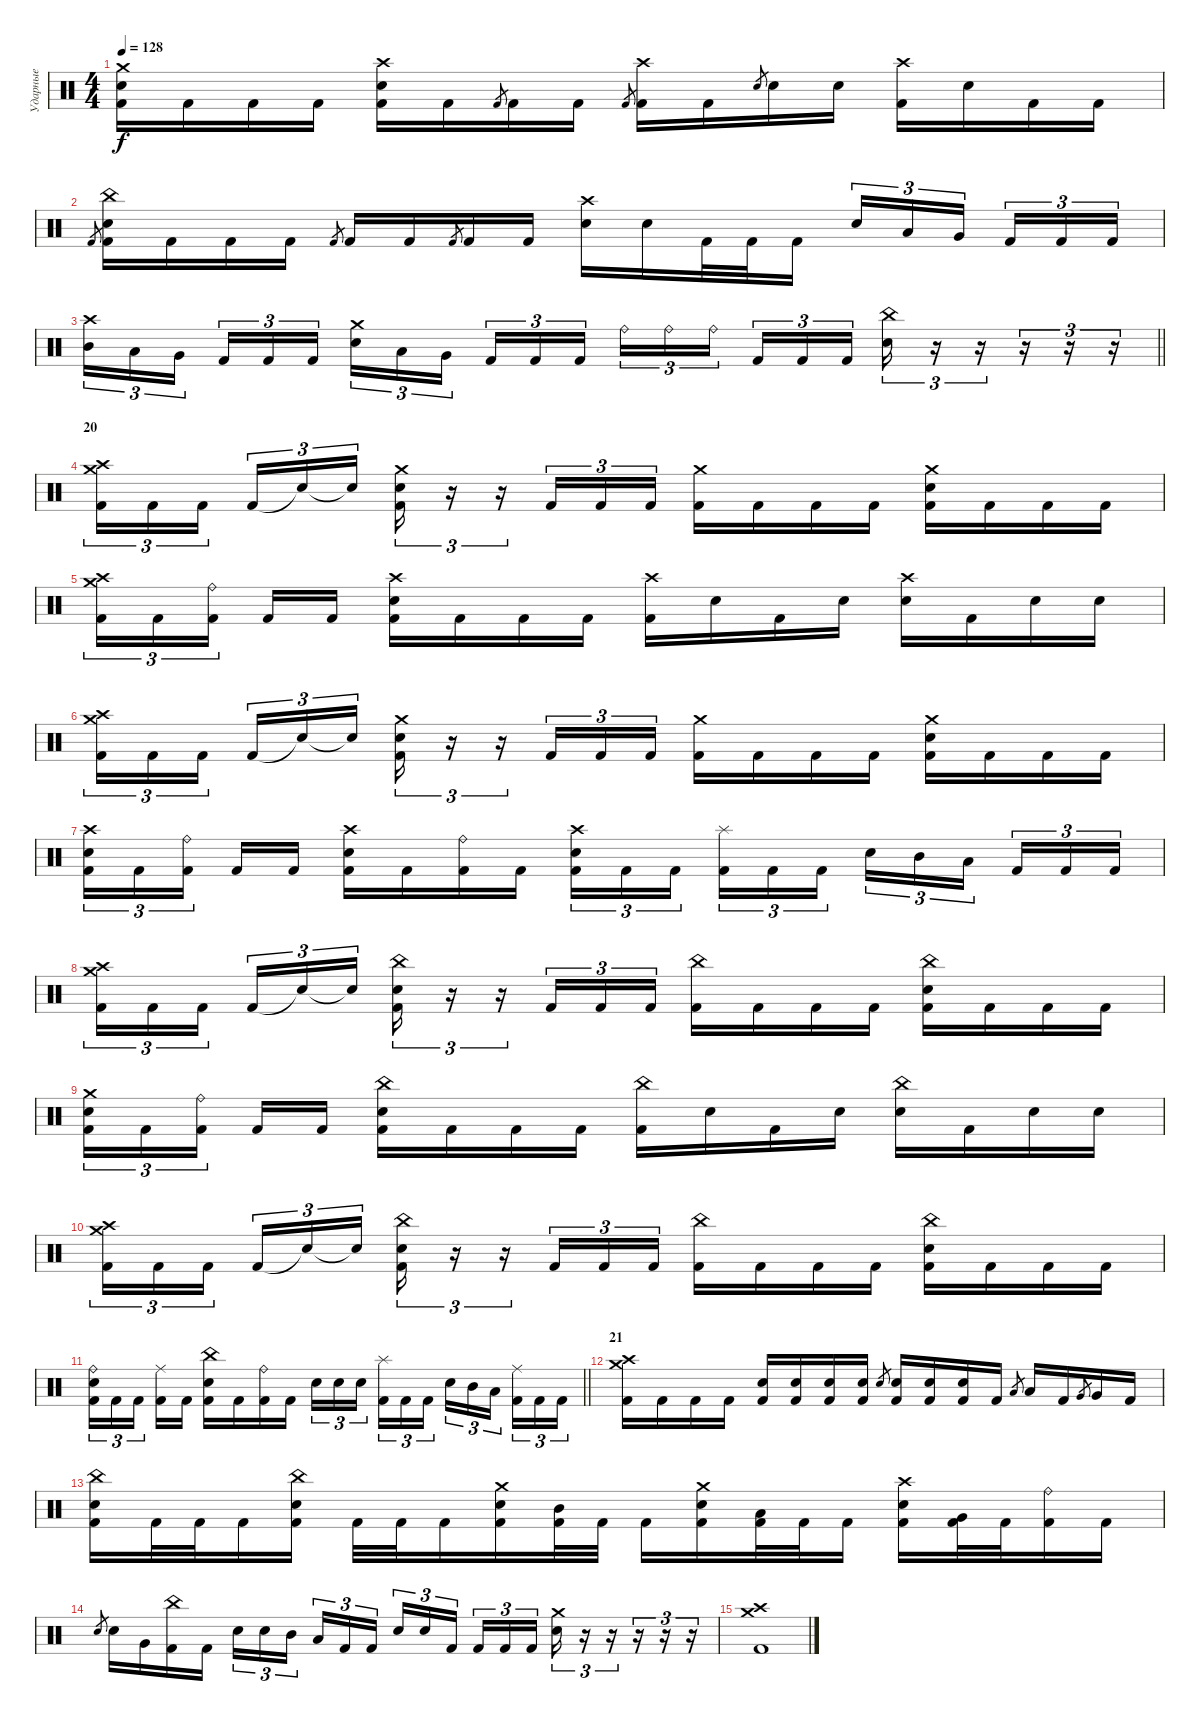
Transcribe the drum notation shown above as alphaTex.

\track ("Ударные" "Ударные") {instrument percussion}
\staff {score}
\articulation defaults
\ts (4 4)
\tempo 128
\clef neutral
\ks c
("Crash medium (hit)" "Electric Snare (hit)" "Kick (hit) 2").16{dy f} "Kick (hit) 2".16 "Kick (hit) 2".16 "Kick (hit) 2".16 ("Crash high (hit)" "Electric Snare (hit)" "Kick (hit) 2").16 "Kick (hit) 2".16 "Kick (hit) 2".8{gr} "Kick (hit) 2".16 "Kick (hit) 2".16 "Kick (hit) 2".8{gr} ("Crash high (hit)" "Kick (hit) 2").16 "Kick (hit) 2".16 "Electric Snare (hit)".8{gr} "Electric Snare (hit)".16 "Electric Snare (hit)".16 ("Crash high (hit)" "Kick (hit) 2").16 "Electric Snare (hit)".16 "Kick (hit) 2".16 "Kick (hit) 2".16 |
"Kick (hit) 2".8{gr} ("China (hit)" "Electric Snare (hit)" "Kick (hit) 2").16 "Kick (hit) 2".16 "Kick (hit) 2".16 "Kick (hit) 2".16 "Kick (hit) 2".8{gr} "Kick (hit) 2".16 "Kick (hit) 2".16 "Kick (hit) 2".8{gr} "Kick (hit) 2".16 "Kick (hit) 2".16 ("Crash high (hit)" "Electric Snare (hit)").16 "Electric Snare (hit)".16 "Kick (hit) 2".32 "Kick (hit) 2".32 "Kick (hit) 2".16 "Electric Snare (hit)".16{tu (3 2)} "Low Tom (hit)".16{tu (3 2)} "Very Low Tom (hit)".16{tu (3 2) beam splitsecondary} "Kick (hit) 2".16{tu (3 2)} "Kick (hit) 2".16{tu (3 2)} "Kick (hit) 2".16{tu (3 2)} |
\barLineRight lightlight
("Crash high (hit)" "Mid Tom (hit)").16{tu (3 2)} "Low Tom (hit)".16{tu (3 2)} "Very Low Tom (hit)".16{tu (3 2) beam splitsecondary} "Kick (hit) 2".16{tu (3 2)} "Kick (hit) 2".16{tu (3 2)} "Kick (hit) 2".16{tu (3 2)} ("Crash medium (hit)" "Electric Snare (hit)").16{tu (3 2)} "Low Tom (hit)".16{tu (3 2)} "Very Low Tom (hit)".16{tu (3 2) beam splitsecondary} "Kick (hit) 2".16{tu (3 2)} "Kick (hit) 2".16{tu (3 2)} "Kick (hit) 2".16{tu (3 2)} "Ride (bell)".16{tu (3 2)} "Ride (bell)".16{tu (3 2)} "Ride (bell)".16{tu (3 2) beam splitsecondary} "Kick (hit) 2".16{tu (3 2)} "Kick (hit) 2".16{tu (3 2)} "Kick (hit) 2".16{tu (3 2)} ("China (hit)" "Electric Snare (hit)").16{tu (3 2)} r.16{tu (3 2)} r.16{tu (3 2)} r.16{tu (3 2)} r.16{tu (3 2)} r.16{tu (3 2)} |
\section ("" "20")
("Crash high (hit)" "Crash medium (hit)" "Kick (hit) 2").16{tu (3 2)} "Kick (hit) 2".16{tu (3 2)} "Kick (hit) 2".16{tu (3 2) beam splitsecondary} "Kick (hit) 2".16{tu (3 2)} "Snare (hit)"{t}.16{tu (3 2)} "Snare (hit)"{t}.16{tu (3 2)} ("Crash medium (hit)" "Electric Snare (hit)" "Kick (hit) 2").16{tu (3 2)} r.16{tu (3 2)} r.16{tu (3 2)} "Kick (hit) 2".16{tu (3 2)} "Kick (hit) 2".16{tu (3 2)} "Kick (hit) 2".16{tu (3 2)} ("Crash medium (hit)" "Kick (hit) 2").16 "Kick (hit) 2".16 "Kick (hit) 2".16 "Kick (hit) 2".16 ("Crash medium (hit)" "Electric Snare (hit)" "Kick (hit) 2").16 "Kick (hit) 2".16 "Kick (hit) 2".16 "Kick (hit) 2".16 |
("Crash high (hit)" "Crash medium (hit)" "Kick (hit) 2").16{tu (3 2)} "Kick (hit) 2".16{tu (3 2)} ("Ride (bell)" "Kick (hit) 2").16{tu (3 2) beam splitsecondary} "Kick (hit) 2".16 "Kick (hit) 2".16 ("Crash high (hit)" "Electric Snare (hit)" "Kick (hit) 2").16 "Kick (hit) 2".16 "Kick (hit) 2".16 "Kick (hit) 2".16 ("Crash high (hit)" "Kick (hit) 2").16 "Electric Snare (hit)".16 "Kick (hit) 2".16 "Electric Snare (hit)".16 ("Crash high (hit)" "Electric Snare (hit)").16 "Kick (hit) 2".16 "Electric Snare (hit)".16 "Electric Snare (hit)".16 |
("Crash high (hit)" "Crash medium (hit)" "Kick (hit) 2").16{tu (3 2)} "Kick (hit) 2".16{tu (3 2)} "Kick (hit) 2".16{tu (3 2) beam splitsecondary} "Kick (hit) 2".16{tu (3 2)} "Snare (hit)"{t}.16{tu (3 2)} "Snare (hit)"{t}.16{tu (3 2)} ("Crash medium (hit)" "Electric Snare (hit)" "Kick (hit) 2").16{tu (3 2)} r.16{tu (3 2)} r.16{tu (3 2)} "Kick (hit) 2".16{tu (3 2)} "Kick (hit) 2".16{tu (3 2)} "Kick (hit) 2".16{tu (3 2)} ("Crash medium (hit)" "Kick (hit) 2").16 "Kick (hit) 2".16 "Kick (hit) 2".16 "Kick (hit) 2".16 ("Crash medium (hit)" "Electric Snare (hit)" "Kick (hit) 2").16 "Kick (hit) 2".16 "Kick (hit) 2".16 "Kick (hit) 2".16 |
("Crash high (hit)" "Electric Snare (hit)" "Kick (hit) 2").16{tu (3 2)} "Kick (hit) 2".16{tu (3 2)} ("Ride (bell)" "Kick (hit) 2").16{tu (3 2) beam splitsecondary} "Kick (hit) 2".16 "Kick (hit) 2".16 ("Crash high (hit)" "Electric Snare (hit)" "Kick (hit) 2").16 "Kick (hit) 2".16 ("Ride (bell)" "Kick (hit) 2").16 "Kick (hit) 2".16 ("Crash high (hit)" "Electric Snare (hit)" "Kick (hit) 2").16{tu (3 2)} "Kick (hit) 2".16{tu (3 2)} "Kick (hit) 2".16{tu (3 2) beam splitsecondary} ("Splash (hit)" "Kick (hit) 2").16{tu (3 2)} "Kick (hit) 2".16{tu (3 2)} "Kick (hit) 2".16{tu (3 2)} "Electric Snare (hit)".16{tu (3 2)} "Mid Tom (hit)".16{tu (3 2)} "Low Tom (hit)".16{tu (3 2) beam splitsecondary} "Kick (hit) 2".16{tu (3 2)} "Kick (hit) 2".16{tu (3 2)} "Kick (hit) 2".16{tu (3 2)} |
("Crash high (hit)" "Crash medium (hit)" "Kick (hit) 2").16{tu (3 2)} "Kick (hit) 2".16{tu (3 2)} "Kick (hit) 2".16{tu (3 2) beam splitsecondary} "Kick (hit) 2".16{tu (3 2)} "Snare (hit)"{t}.16{tu (3 2)} "Snare (hit)"{t}.16{tu (3 2)} ("China (hit)" "Electric Snare (hit)" "Kick (hit) 2").16{tu (3 2)} r.16{tu (3 2)} r.16{tu (3 2)} "Kick (hit) 2".16{tu (3 2)} "Kick (hit) 2".16{tu (3 2)} "Kick (hit) 2".16{tu (3 2)} ("China (hit)" "Kick (hit) 2").16 "Kick (hit) 2".16 "Kick (hit) 2".16 "Kick (hit) 2".16 ("China (hit)" "Electric Snare (hit)" "Kick (hit) 2").16 "Kick (hit) 2".16 "Kick (hit) 2".16 "Kick (hit) 2".16 |
("Crash medium (hit)" "Electric Snare (hit)" "Kick (hit) 2").16{tu (3 2)} "Kick (hit) 2".16{tu (3 2)} ("Ride (bell)" "Kick (hit) 2").16{tu (3 2) beam splitsecondary} "Kick (hit) 2".16 "Kick (hit) 2".16 ("China (hit)" "Electric Snare (hit)" "Kick (hit) 2").16 "Kick (hit) 2".16 "Kick (hit) 2".16 "Kick (hit) 2".16 ("China (hit)" "Kick (hit) 2").16 "Electric Snare (hit)".16 "Kick (hit) 2".16 "Electric Snare (hit)".16 ("China (hit)" "Electric Snare (hit)").16 "Kick (hit) 2".16 "Electric Snare (hit)".16 "Electric Snare (hit)".16 |
("Crash high (hit)" "Crash medium (hit)" "Kick (hit) 2").16{tu (3 2)} "Kick (hit) 2".16{tu (3 2)} "Kick (hit) 2".16{tu (3 2) beam splitsecondary} "Kick (hit) 2".16{tu (3 2)} "Snare (hit)"{t}.16{tu (3 2)} "Snare (hit)"{t}.16{tu (3 2)} ("China (hit)" "Electric Snare (hit)" "Kick (hit) 2").16{tu (3 2)} r.16{tu (3 2)} r.16{tu (3 2)} "Kick (hit) 2".16{tu (3 2)} "Kick (hit) 2".16{tu (3 2)} "Kick (hit) 2".16{tu (3 2)} ("China (hit)" "Kick (hit) 2").16 "Kick (hit) 2".16 "Kick (hit) 2".16 "Kick (hit) 2".16 ("China (hit)" "Electric Snare (hit)" "Kick (hit) 2").16 "Kick (hit) 2".16 "Kick (hit) 2".16 "Kick (hit) 2".16 |
\barLineRight lightlight
("Ride (bell)" "Electric Snare (hit)" "Kick (hit) 2").16{tu (3 2)} "Kick (hit) 2".16{tu (3 2)} "Kick (hit) 2".16{tu (3 2) beam splitsecondary} ("Ride (middle)" "Kick (hit) 2").16 "Kick (hit) 2".16 ("China (hit)" "Electric Snare (hit)" "Kick (hit) 2").16 "Kick (hit) 2".16 ("Ride (bell)" "Kick (hit) 2").16 "Kick (hit) 2".16 "Electric Snare (hit)".16{tu (3 2)} "Electric Snare (hit)".16{tu (3 2)} "Electric Snare (hit)".16{tu (3 2) beam splitsecondary} ("Splash (hit)" "Kick (hit) 2").16{tu (3 2)} "Kick (hit) 2".16{tu (3 2)} "Kick (hit) 2".16{tu (3 2)} "Electric Snare (hit)".16{tu (3 2)} "Mid Tom (hit)".16{tu (3 2)} "Low Tom (hit)".16{tu (3 2) beam splitsecondary} ("Ride (middle)" "Kick (hit) 2").16{tu (3 2)} "Kick (hit) 2".16{tu (3 2)} "Kick (hit) 2".16{tu (3 2)} |
\section ("" "21")
("Crash medium (hit)" "Crash high (hit)" "Kick (hit) 2").16 "Kick (hit) 2".16 "Kick (hit) 2".16 "Kick (hit) 2".16 ("Electric Snare (hit)" "Kick (hit) 2").16 ("Electric Snare (hit)" "Kick (hit) 2").16 ("Electric Snare (hit)" "Kick (hit) 2").16 ("Electric Snare (hit)" "Kick (hit) 2").16 "Electric Snare (hit)".8{gr} ("Electric Snare (hit)" "Kick (hit) 2").16 ("Electric Snare (hit)" "Kick (hit) 2").16 ("Electric Snare (hit)" "Kick (hit) 2").16 "Kick (hit) 2".16 "Low Tom (hit)".8{gr} "Low Tom (hit)".16 "Kick (hit) 2".16 "Very Low Tom (hit)".8{gr} "Very Low Tom (hit)".16 "Kick (hit) 2".16 |
("China (hit)" "Electric Snare (hit)" "Kick (hit) 2").16 "Kick (hit) 2".32 "Kick (hit) 2".32 "Kick (hit) 2".16 ("China (hit)" "Electric Snare (hit)" "Kick (hit) 2").16 "Kick (hit) 2".32 "Kick (hit) 2".32 "Kick (hit) 2".16 ("Crash medium (hit)" "Electric Snare (hit)" "Kick (hit) 2").16 ("Mid Tom (hit)" "Kick (hit) 2").32 "Kick (hit) 2".32 "Kick (hit) 2".16 ("Crash medium (hit)" "Electric Snare (hit)" "Kick (hit) 2").16 ("Low Tom (hit)" "Kick (hit) 2").32 "Kick (hit) 2".32 "Kick (hit) 2".16 ("Crash high (hit)" "Electric Snare (hit)" "Kick (hit) 2").16 ("Very Low Tom (hit)" "Kick (hit) 2").32 "Kick (hit) 2".32 ("Ride (bell)" "Kick (hit) 2").16 "Kick (hit) 2".16 |
"Electric Snare (hit)".8{gr} "Electric Snare (hit)".16 "Very Low Tom (hit)".16 ("China (hit)" "Kick (hit) 2").16 "Kick (hit) 2".16 "Electric Snare (hit)".16{tu (3 2)} "Electric Snare (hit)".16{tu (3 2)} "Mid Tom (hit)".16{tu (3 2) beam splitsecondary} "Low Tom (hit)".16{tu (3 2)} "Kick (hit) 2".16{tu (3 2)} "Kick (hit) 2".16{tu (3 2)} "Electric Snare (hit)".16{tu (3 2)} "Electric Snare (hit)".16{tu (3 2)} "Kick (hit) 2".16{tu (3 2) beam splitsecondary} "Kick (hit) 2".16{tu (3 2)} "Kick (hit) 2".16{tu (3 2)} "Kick (hit) 2".16{tu (3 2)} ("Crash medium (hit)" "Electric Snare (hit)").16{tu (3 2)} r.16{tu (3 2)} r.16{tu (3 2)} r.16{tu (3 2)} r.16{tu (3 2)} r.16{tu (3 2)} |
("Crash medium (hit)" "Crash high (hit)" "Kick (hit) 2").1
